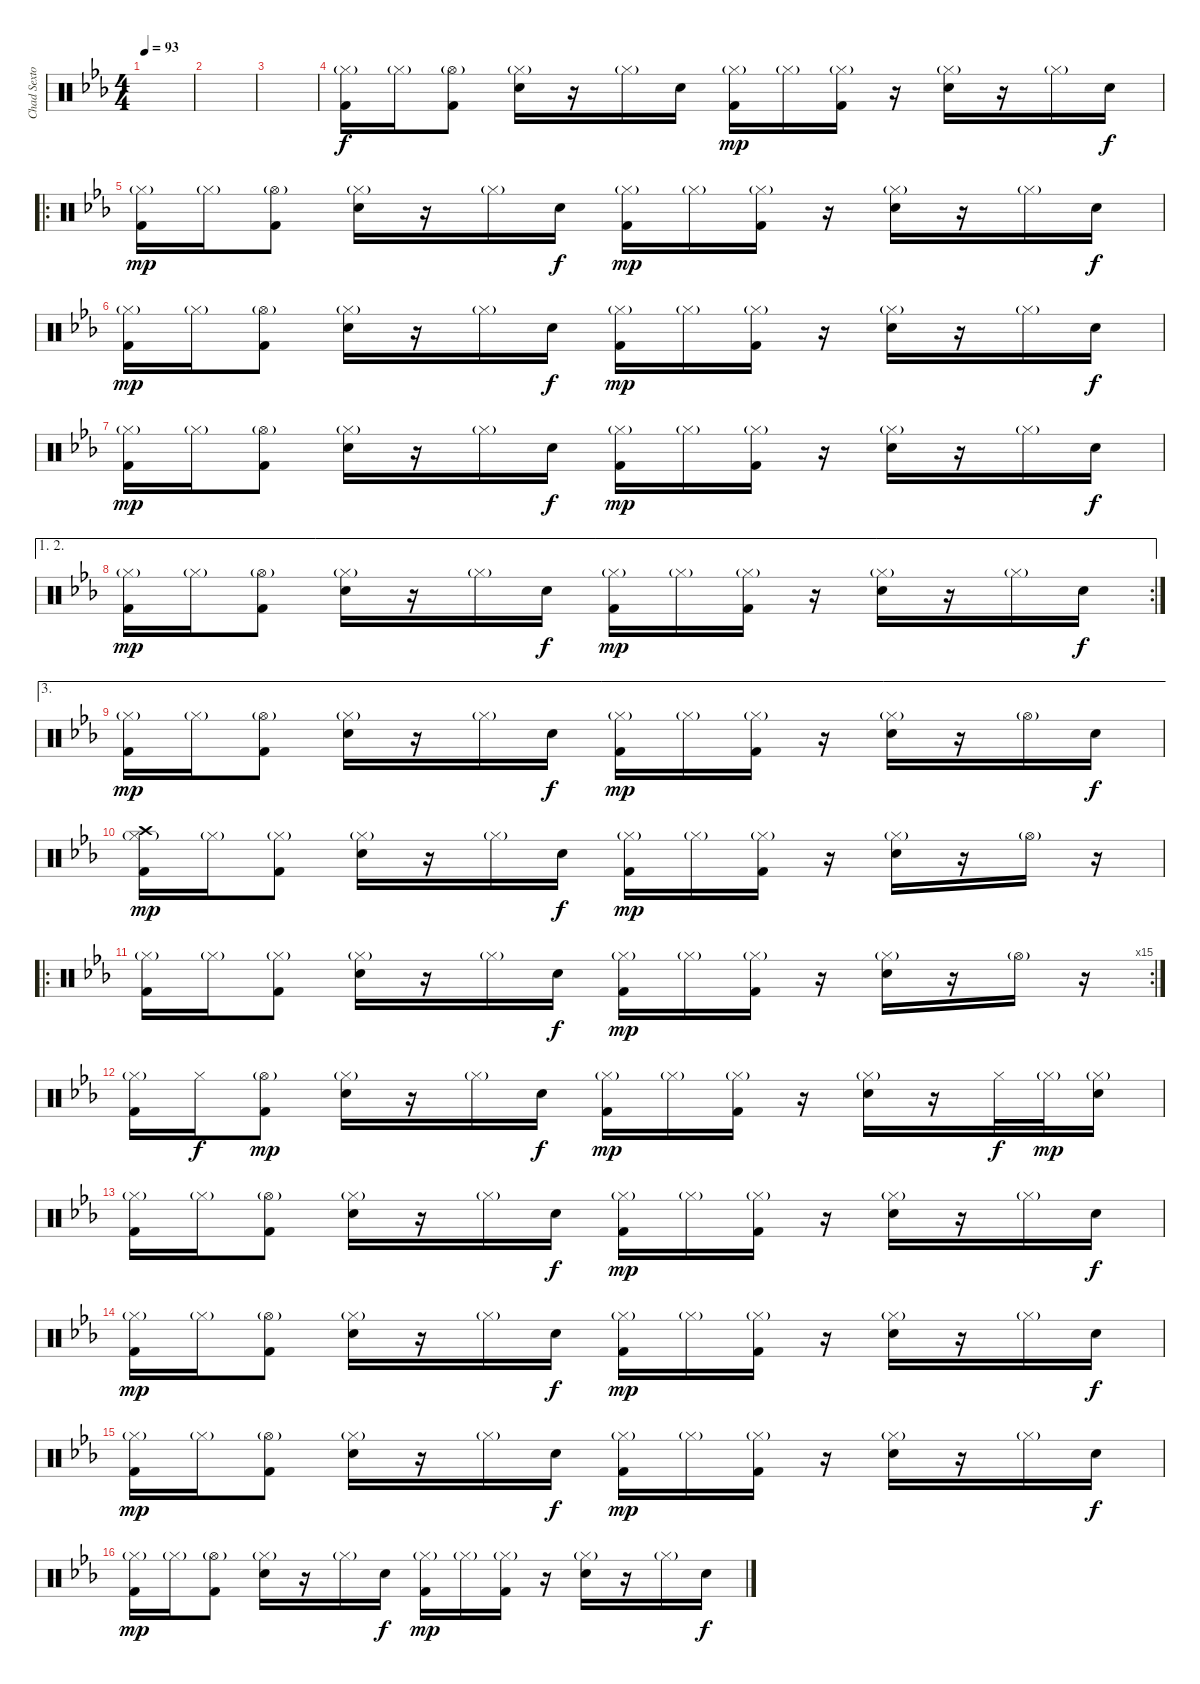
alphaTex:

\track ("Chad Sexton (Drums)" "Chad Sexto") {instrument percussion}
\staff {score}
\articulation defaults
\ts (4 4)
\tempo 93
\clef neutral
\ks eb
|
|
|
("Hi-Hat (closed)"{g} "Kick (hit) 2").16 "Hi-Hat (closed)"{g}.16 ("Hi-Hat (open)"{g} "Kick (hit) 2").8 ("Hi-Hat (closed)"{g} "Snare (hit) 2").16 r.16 "Hi-Hat (closed)"{g}.16 "Snare (hit) 2".16{dy f} ("Hi-Hat (closed)"{g} "Kick (hit) 2").16{dy mp} "Hi-Hat (closed)"{g}.16 ("Hi-Hat (closed)"{g} "Kick (hit) 2").16 r.16 ("Hi-Hat (closed)"{g} "Snare (hit) 2").16 r.16 "Hi-Hat (closed)"{g}.16 "Snare (hit) 2".16{dy f} |
\ro
("Hi-Hat (closed)"{g} "Kick (hit) 2").16{dy mp} "Hi-Hat (closed)"{g}.16 ("Hi-Hat (open)"{g} "Kick (hit) 2").8 ("Hi-Hat (closed)"{g} "Snare (hit) 2").16 r.16 "Hi-Hat (closed)"{g}.16 "Snare (hit) 2".16{dy f} ("Hi-Hat (closed)"{g} "Kick (hit) 2").16{dy mp} "Hi-Hat (closed)"{g}.16 ("Hi-Hat (closed)"{g} "Kick (hit) 2").16 r.16 ("Hi-Hat (closed)"{g} "Snare (hit) 2").16 r.16 "Hi-Hat (closed)"{g}.16 "Snare (hit) 2".16{dy f} |
("Hi-Hat (closed)"{g} "Kick (hit) 2").16{dy mp} "Hi-Hat (closed)"{g}.16 ("Hi-Hat (open)"{g} "Kick (hit) 2").8 ("Hi-Hat (closed)"{g} "Snare (hit) 2").16 r.16 "Hi-Hat (closed)"{g}.16 "Snare (hit) 2".16{dy f} ("Hi-Hat (closed)"{g} "Kick (hit) 2").16{dy mp} "Hi-Hat (closed)"{g}.16 ("Hi-Hat (closed)"{g} "Kick (hit) 2").16 r.16 ("Hi-Hat (closed)"{g} "Snare (hit) 2").16 r.16 "Hi-Hat (closed)"{g}.16 "Snare (hit) 2".16{dy f} |
("Hi-Hat (closed)"{g} "Kick (hit) 2").16{dy mp} "Hi-Hat (closed)"{g}.16 ("Hi-Hat (open)"{g} "Kick (hit) 2").8 ("Hi-Hat (closed)"{g} "Snare (hit) 2").16 r.16 "Hi-Hat (closed)"{g}.16 "Snare (hit) 2".16{dy f} ("Hi-Hat (closed)"{g} "Kick (hit) 2").16{dy mp} "Hi-Hat (closed)"{g}.16 ("Hi-Hat (closed)"{g} "Kick (hit) 2").16 r.16 ("Hi-Hat (closed)"{g} "Snare (hit) 2").16 r.16 "Hi-Hat (closed)"{g}.16 "Snare (hit) 2".16{dy f} |
\ae (1 2)
\rc 2
("Hi-Hat (closed)"{g} "Kick (hit) 2").16{dy mp} "Hi-Hat (closed)"{g}.16 ("Hi-Hat (open)"{g} "Kick (hit) 2").8 ("Hi-Hat (closed)"{g} "Snare (hit) 2").16 r.16 "Hi-Hat (closed)"{g}.16 "Snare (hit) 2".16{dy f} ("Hi-Hat (closed)"{g} "Kick (hit) 2").16{dy mp} "Hi-Hat (closed)"{g}.16 ("Hi-Hat (closed)"{g} "Kick (hit) 2").16 r.16 ("Hi-Hat (closed)"{g} "Snare (hit) 2").16 r.16 "Hi-Hat (closed)"{g}.16 "Snare (hit) 2".16{dy f} |
\ae 3
("Hi-Hat (closed)"{g} "Kick (hit) 2").16{dy mp} "Hi-Hat (closed)"{g}.16 ("Hi-Hat (open)"{g} "Kick (hit) 2").8 ("Hi-Hat (closed)"{g} "Snare (hit) 2").16 r.16 "Hi-Hat (closed)"{g}.16 "Snare (hit) 2".16{dy f} ("Hi-Hat (closed)"{g} "Kick (hit) 2").16{dy mp} "Hi-Hat (closed)"{g}.16 ("Hi-Hat (closed)"{g} "Kick (hit) 2").16 r.16 ("Hi-Hat (closed)"{g} "Snare (hit) 2").16 r.16 "Hi-Hat (open)"{g}.16 "Snare (hit) 2".16{dy f} |
("Crash high (hit)" "Hi-Hat (closed)"{g} "Kick (hit) 2").16{dy mp} "Hi-Hat (closed)"{g}.16 ("Hi-Hat (closed)"{g} "Kick (hit) 2").8 ("Hi-Hat (closed)"{g} "Snare (hit) 2").16 r.16 "Hi-Hat (closed)"{g}.16 "Snare (hit) 2".16{dy f} ("Hi-Hat (closed)"{g} "Kick (hit) 2").16{dy mp} "Hi-Hat (closed)"{g}.16 ("Hi-Hat (closed)"{g} "Kick (hit) 2").16 r.16 ("Hi-Hat (closed)"{g} "Snare (hit) 2").16 r.16 "Hi-Hat (open)"{g}.16 r.16 |
\ro
\rc 15
("Hi-Hat (closed)"{g} "Kick (hit) 2").16 "Hi-Hat (closed)"{g}.16 ("Hi-Hat (closed)"{g} "Kick (hit) 2").8 ("Hi-Hat (closed)"{g} "Snare (hit) 2").16 r.16 "Hi-Hat (closed)"{g}.16 "Snare (hit) 2".16{dy f} ("Hi-Hat (closed)"{g} "Kick (hit) 2").16{dy mp} "Hi-Hat (closed)"{g}.16 ("Hi-Hat (closed)"{g} "Kick (hit) 2").16 r.16 ("Hi-Hat (closed)"{g} "Snare (hit) 2").16 r.16 "Hi-Hat (open)"{g}.16 r.16 |
("Hi-Hat (closed)"{g} "Kick (hit) 2").16 "Hi-Hat (closed)".16{dy f} ("Hi-Hat (open)"{g} "Kick (hit) 2").8{dy mp} ("Hi-Hat (closed)"{g} "Snare (hit) 2").16 r.16 "Hi-Hat (closed)"{g}.16 "Snare (hit) 2".16{dy f} ("Hi-Hat (closed)"{g} "Kick (hit) 2").16{dy mp} "Hi-Hat (closed)"{g}.16 ("Hi-Hat (closed)"{g} "Kick (hit) 2").16 r.16 ("Hi-Hat (closed)"{g} "Snare (hit) 2").16 r.16 "Hi-Hat (closed)".32{dy f} "Hi-Hat (closed)"{g}.32{dy mp} ("Hi-Hat (closed)"{g} "Snare (hit) 2").16 |
("Hi-Hat (closed)"{g} "Kick (hit) 2").16 "Hi-Hat (closed)"{g}.16 ("Hi-Hat (open)"{g} "Kick (hit) 2").8 ("Hi-Hat (closed)"{g} "Snare (hit) 2").16 r.16 "Hi-Hat (closed)"{g}.16 "Snare (hit) 2".16{dy f} ("Hi-Hat (closed)"{g} "Kick (hit) 2").16{dy mp} "Hi-Hat (closed)"{g}.16 ("Hi-Hat (closed)"{g} "Kick (hit) 2").16 r.16 ("Hi-Hat (closed)"{g} "Snare (hit) 2").16 r.16 "Hi-Hat (closed)"{g}.16 "Snare (hit) 2".16{dy f} |
("Hi-Hat (closed)"{g} "Kick (hit) 2").16{dy mp} "Hi-Hat (closed)"{g}.16 ("Hi-Hat (open)"{g} "Kick (hit) 2").8 ("Hi-Hat (closed)"{g} "Snare (hit) 2").16 r.16 "Hi-Hat (closed)"{g}.16 "Snare (hit) 2".16{dy f} ("Hi-Hat (closed)"{g} "Kick (hit) 2").16{dy mp} "Hi-Hat (closed)"{g}.16 ("Hi-Hat (closed)"{g} "Kick (hit) 2").16 r.16 ("Hi-Hat (closed)"{g} "Snare (hit) 2").16 r.16 "Hi-Hat (closed)"{g}.16 "Snare (hit) 2".16{dy f} |
("Hi-Hat (closed)"{g} "Kick (hit) 2").16{dy mp} "Hi-Hat (closed)"{g}.16 ("Hi-Hat (open)"{g} "Kick (hit) 2").8 ("Hi-Hat (closed)"{g} "Snare (hit) 2").16 r.16 "Hi-Hat (closed)"{g}.16 "Snare (hit) 2".16{dy f} ("Hi-Hat (closed)"{g} "Kick (hit) 2").16{dy mp} "Hi-Hat (closed)"{g}.16 ("Hi-Hat (closed)"{g} "Kick (hit) 2").16 r.16 ("Hi-Hat (closed)"{g} "Snare (hit) 2").16 r.16 "Hi-Hat (closed)"{g}.16 "Snare (hit) 2".16{dy f} |
("Hi-Hat (closed)"{g} "Kick (hit) 2").16{dy mp} "Hi-Hat (closed)"{g}.16 ("Hi-Hat (open)"{g} "Kick (hit) 2").8 ("Hi-Hat (closed)"{g} "Snare (hit) 2").16 r.16 "Hi-Hat (closed)"{g}.16 "Snare (hit) 2".16{dy f} ("Hi-Hat (closed)"{g} "Kick (hit) 2").16{dy mp} "Hi-Hat (closed)"{g}.16 ("Hi-Hat (closed)"{g} "Kick (hit) 2").16 r.16 ("Hi-Hat (closed)"{g} "Snare (hit) 2").16 r.16 "Hi-Hat (closed)"{g}.16 "Snare (hit) 2".16{dy f}
